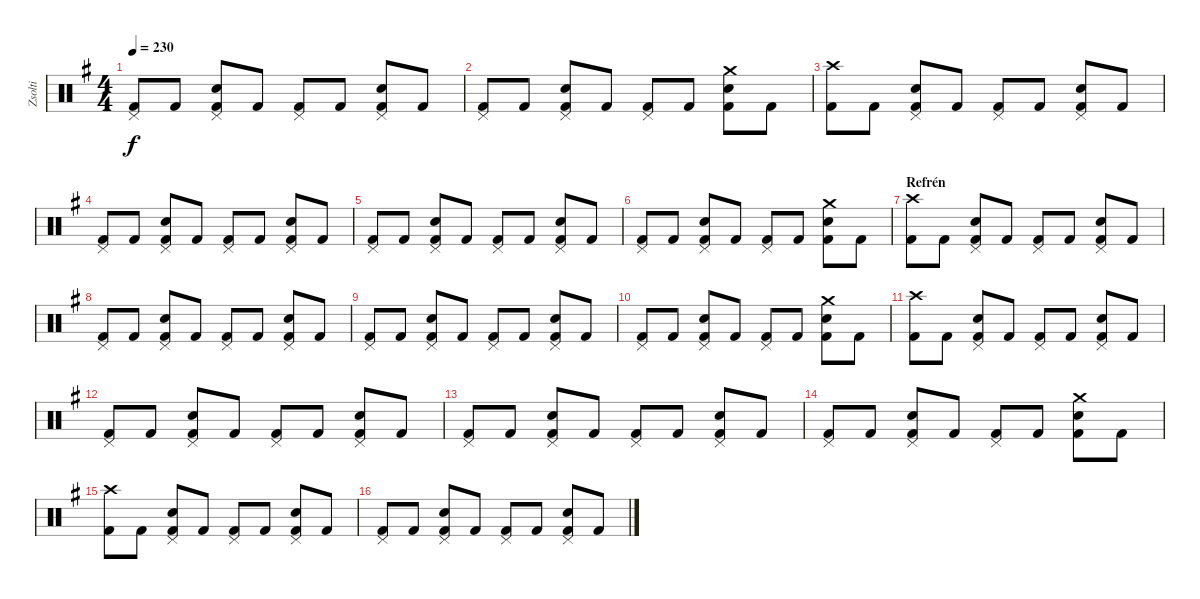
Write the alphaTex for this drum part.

\track ("Zsolti" "Zsolti") {instrument percussion}
\staff {score}
\articulation defaults
\ts (4 4)
\tempo 230
\clef neutral
\ks eminor
("Pedal Hi-Hat (hit)" "Kick (hit) 2").8{dy f} "Kick (hit) 2".8 ("Pedal Hi-Hat (hit)" "Snare (hit) 2" "Kick (hit) 2").8 "Kick (hit) 2".8 ("Pedal Hi-Hat (hit)" "Kick (hit) 2").8 "Kick (hit) 2".8 ("Pedal Hi-Hat (hit)" "Snare (hit) 2" "Kick (hit) 2").8 "Kick (hit) 2".8 |
("Pedal Hi-Hat (hit)" "Kick (hit) 2").8 "Kick (hit) 2".8 ("Pedal Hi-Hat (hit)" "Snare (hit) 2" "Kick (hit) 2").8 "Kick (hit) 2".8 ("Pedal Hi-Hat (hit)" "Kick (hit) 2").8 "Kick (hit) 2".8 ("Crash medium (hit)" "Snare (hit) 2" "Kick (hit) 2").8 "Kick (hit) 2".8 |
("Crash high (hit)" "Kick (hit) 2").8 "Kick (hit) 2".8 ("Pedal Hi-Hat (hit)" "Snare (hit) 2" "Kick (hit) 2").8 "Kick (hit) 2".8 ("Pedal Hi-Hat (hit)" "Kick (hit) 2").8 "Kick (hit) 2".8 ("Pedal Hi-Hat (hit)" "Snare (hit) 2" "Kick (hit) 2").8 "Kick (hit) 2".8 |
("Pedal Hi-Hat (hit)" "Kick (hit) 2").8 "Kick (hit) 2".8 ("Pedal Hi-Hat (hit)" "Snare (hit) 2" "Kick (hit) 2").8 "Kick (hit) 2".8 ("Pedal Hi-Hat (hit)" "Kick (hit) 2").8 "Kick (hit) 2".8 ("Pedal Hi-Hat (hit)" "Snare (hit) 2" "Kick (hit) 2").8 "Kick (hit) 2".8 |
("Pedal Hi-Hat (hit)" "Kick (hit) 2").8 "Kick (hit) 2".8 ("Pedal Hi-Hat (hit)" "Snare (hit) 2" "Kick (hit) 2").8 "Kick (hit) 2".8 ("Pedal Hi-Hat (hit)" "Kick (hit) 2").8 "Kick (hit) 2".8 ("Pedal Hi-Hat (hit)" "Snare (hit) 2" "Kick (hit) 2").8 "Kick (hit) 2".8 |
("Pedal Hi-Hat (hit)" "Kick (hit) 2").8 "Kick (hit) 2".8 ("Pedal Hi-Hat (hit)" "Snare (hit) 2" "Kick (hit) 2").8 "Kick (hit) 2".8 ("Pedal Hi-Hat (hit)" "Kick (hit) 2").8 "Kick (hit) 2".8 ("Crash medium (hit)" "Snare (hit) 2" "Kick (hit) 2").8 "Kick (hit) 2".8 |
\section ("" "Refrén")
("Crash high (hit)" "Kick (hit) 2").8 "Kick (hit) 2".8 ("Pedal Hi-Hat (hit)" "Snare (hit) 2" "Kick (hit) 2").8 "Kick (hit) 2".8 ("Pedal Hi-Hat (hit)" "Kick (hit) 2").8 "Kick (hit) 2".8 ("Pedal Hi-Hat (hit)" "Snare (hit) 2" "Kick (hit) 2").8 "Kick (hit) 2".8 |
("Pedal Hi-Hat (hit)" "Kick (hit) 2").8 "Kick (hit) 2".8 ("Pedal Hi-Hat (hit)" "Snare (hit) 2" "Kick (hit) 2").8 "Kick (hit) 2".8 ("Pedal Hi-Hat (hit)" "Kick (hit) 2").8 "Kick (hit) 2".8 ("Pedal Hi-Hat (hit)" "Snare (hit) 2" "Kick (hit) 2").8 "Kick (hit) 2".8 |
("Pedal Hi-Hat (hit)" "Kick (hit) 2").8 "Kick (hit) 2".8 ("Pedal Hi-Hat (hit)" "Snare (hit) 2" "Kick (hit) 2").8 "Kick (hit) 2".8 ("Pedal Hi-Hat (hit)" "Kick (hit) 2").8 "Kick (hit) 2".8 ("Pedal Hi-Hat (hit)" "Snare (hit) 2" "Kick (hit) 2").8 "Kick (hit) 2".8 |
("Pedal Hi-Hat (hit)" "Kick (hit) 2").8 "Kick (hit) 2".8 ("Pedal Hi-Hat (hit)" "Snare (hit) 2" "Kick (hit) 2").8 "Kick (hit) 2".8 ("Pedal Hi-Hat (hit)" "Kick (hit) 2").8 "Kick (hit) 2".8 ("Crash medium (hit)" "Snare (hit) 2" "Kick (hit) 2").8 "Kick (hit) 2".8 |
("Crash high (hit)" "Kick (hit) 2").8 "Kick (hit) 2".8 ("Pedal Hi-Hat (hit)" "Snare (hit) 2" "Kick (hit) 2").8 "Kick (hit) 2".8 ("Pedal Hi-Hat (hit)" "Kick (hit) 2").8 "Kick (hit) 2".8 ("Pedal Hi-Hat (hit)" "Snare (hit) 2" "Kick (hit) 2").8 "Kick (hit) 2".8 |
("Pedal Hi-Hat (hit)" "Kick (hit) 2").8 "Kick (hit) 2".8 ("Pedal Hi-Hat (hit)" "Snare (hit) 2" "Kick (hit) 2").8 "Kick (hit) 2".8 ("Pedal Hi-Hat (hit)" "Kick (hit) 2").8 "Kick (hit) 2".8 ("Pedal Hi-Hat (hit)" "Snare (hit) 2" "Kick (hit) 2").8 "Kick (hit) 2".8 |
("Pedal Hi-Hat (hit)" "Kick (hit) 2").8 "Kick (hit) 2".8 ("Pedal Hi-Hat (hit)" "Snare (hit) 2" "Kick (hit) 2").8 "Kick (hit) 2".8 ("Pedal Hi-Hat (hit)" "Kick (hit) 2").8 "Kick (hit) 2".8 ("Pedal Hi-Hat (hit)" "Snare (hit) 2" "Kick (hit) 2").8 "Kick (hit) 2".8 |
("Pedal Hi-Hat (hit)" "Kick (hit) 2").8 "Kick (hit) 2".8 ("Pedal Hi-Hat (hit)" "Snare (hit) 2" "Kick (hit) 2").8 "Kick (hit) 2".8 ("Pedal Hi-Hat (hit)" "Kick (hit) 2").8 "Kick (hit) 2".8 ("Crash medium (hit)" "Snare (hit) 2" "Kick (hit) 2").8 "Kick (hit) 2".8 |
("Crash high (hit)" "Kick (hit) 2").8 "Kick (hit) 2".8 ("Pedal Hi-Hat (hit)" "Snare (hit) 2" "Kick (hit) 2").8 "Kick (hit) 2".8 ("Pedal Hi-Hat (hit)" "Kick (hit) 2").8 "Kick (hit) 2".8 ("Pedal Hi-Hat (hit)" "Snare (hit) 2" "Kick (hit) 2").8 "Kick (hit) 2".8 |
("Pedal Hi-Hat (hit)" "Kick (hit) 2").8 "Kick (hit) 2".8 ("Pedal Hi-Hat (hit)" "Snare (hit) 2" "Kick (hit) 2").8 "Kick (hit) 2".8 ("Pedal Hi-Hat (hit)" "Kick (hit) 2").8 "Kick (hit) 2".8 ("Pedal Hi-Hat (hit)" "Snare (hit) 2" "Kick (hit) 2").8 "Kick (hit) 2".8
